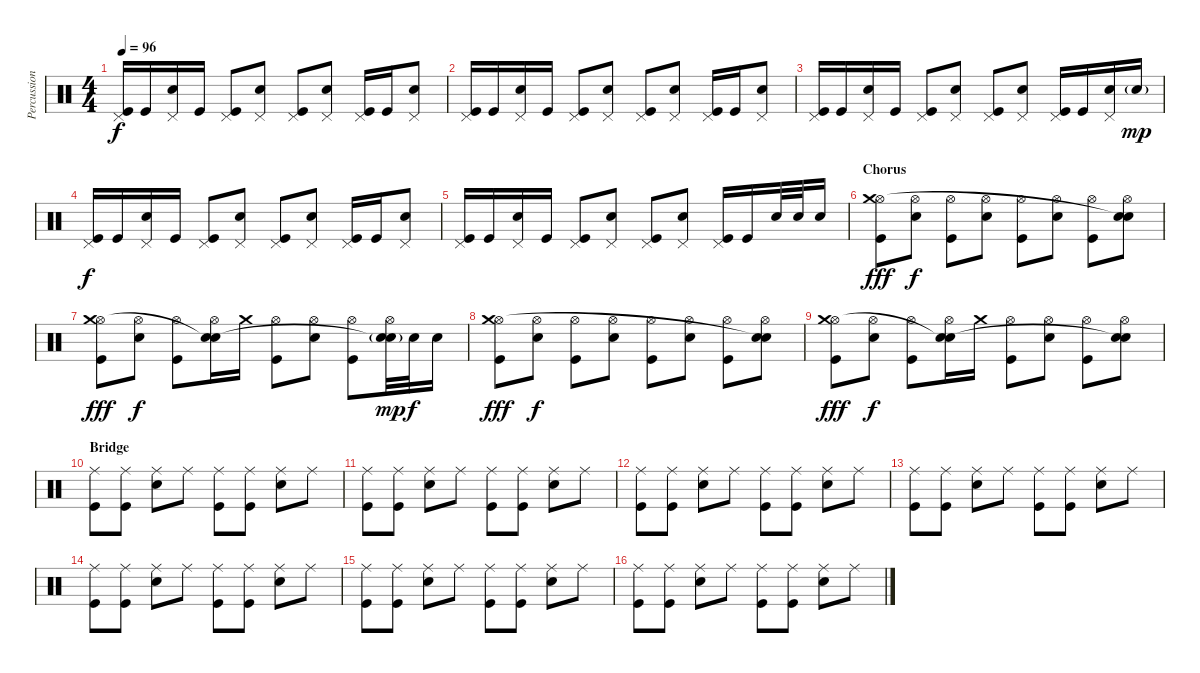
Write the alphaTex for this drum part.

\track ("Percussion" "Percussion") {instrument percussion}
\staff {score}
\articulation defaults
\ts (4 4)
\tempo 96
\clef neutral
\ks c
("Kick (hit)" "Pedal Hi-Hat (hit)").16{dy f} "Kick (hit)".16 ("Electric Snare (hit)" "Pedal Hi-Hat (hit)").16 "Kick (hit)".16 ("Kick (hit)" "Pedal Hi-Hat (hit)").8 ("Electric Snare (hit)" "Pedal Hi-Hat (hit)").8 ("Kick (hit)" "Pedal Hi-Hat (hit)").8 ("Electric Snare (hit)" "Pedal Hi-Hat (hit)").8 ("Kick (hit)" "Pedal Hi-Hat (hit)").16 "Kick (hit)".16 ("Electric Snare (hit)" "Pedal Hi-Hat (hit)").8 |
("Kick (hit)" "Pedal Hi-Hat (hit)").16 "Kick (hit)".16 ("Electric Snare (hit)" "Pedal Hi-Hat (hit)").16 "Kick (hit)".16 ("Kick (hit)" "Pedal Hi-Hat (hit)").8 ("Electric Snare (hit)" "Pedal Hi-Hat (hit)").8 ("Kick (hit)" "Pedal Hi-Hat (hit)").8 ("Electric Snare (hit)" "Pedal Hi-Hat (hit)").8 ("Kick (hit)" "Pedal Hi-Hat (hit)").16 "Kick (hit)".16 ("Electric Snare (hit)" "Pedal Hi-Hat (hit)").8 |
("Kick (hit)" "Pedal Hi-Hat (hit)").16 "Kick (hit)".16 ("Electric Snare (hit)" "Pedal Hi-Hat (hit)").16 "Kick (hit)".16 ("Kick (hit)" "Pedal Hi-Hat (hit)").8 ("Electric Snare (hit)" "Pedal Hi-Hat (hit)").8 ("Kick (hit)" "Pedal Hi-Hat (hit)").8 ("Electric Snare (hit)" "Pedal Hi-Hat (hit)").8 ("Kick (hit)" "Pedal Hi-Hat (hit)").16 "Kick (hit)".16 ("Electric Snare (hit)" "Pedal Hi-Hat (hit)").16 "Electric Snare (hit)"{g}.16{dy mp} |
("Kick (hit)" "Pedal Hi-Hat (hit)").16{dy f} "Kick (hit)".16 ("Electric Snare (hit)" "Pedal Hi-Hat (hit)").16 "Kick (hit)".16 ("Kick (hit)" "Pedal Hi-Hat (hit)").8 ("Electric Snare (hit)" "Pedal Hi-Hat (hit)").8 ("Kick (hit)" "Pedal Hi-Hat (hit)").8 ("Electric Snare (hit)" "Pedal Hi-Hat (hit)").8 ("Kick (hit)" "Pedal Hi-Hat (hit)").16 "Kick (hit)".16 ("Electric Snare (hit)" "Pedal Hi-Hat (hit)").8 |
("Kick (hit)" "Pedal Hi-Hat (hit)").16 "Kick (hit)".16 ("Electric Snare (hit)" "Pedal Hi-Hat (hit)").16 "Kick (hit)".16 ("Kick (hit)" "Pedal Hi-Hat (hit)").8 ("Electric Snare (hit)" "Pedal Hi-Hat (hit)").8 ("Kick (hit)" "Pedal Hi-Hat (hit)").8 ("Electric Snare (hit)" "Pedal Hi-Hat (hit)").8 ("Kick (hit)" "Pedal Hi-Hat (hit)").16 "Kick (hit)".16 "Electric Snare (hit)".32 "Electric Snare (hit)".32 "Electric Snare (hit)".16 |
\section ("" "Chorus")
("Hi-Hat (open)" "Kick (hit)" "Crash medium (hit)").8{dy fff} ("Hi-Hat (open)" "Electric Snare (hit)").8{dy f} ("Hi-Hat (open)" "Kick (hit)").8 ("Hi-Hat (open)" "Electric Snare (hit)").8 ("Hi-Hat (open)" "Kick (hit)").8 ("Hi-Hat (open)" "Electric Snare (hit)").8 ("Hi-Hat (open)" "Kick (hit)").8 ("Hi-Hat (open)" "Electric Snare (hit)" "Snare (hit)"{t}).8 |
("Hi-Hat (open)" "Kick (hit)" "Crash medium (hit)").8{dy fff} ("Hi-Hat (open)" "Electric Snare (hit)").8{dy f} ("Hi-Hat (open)" "Kick (hit)").8 ("Hi-Hat (open)" "Electric Snare (hit)" "Snare (hit)"{t}).16 "Crash medium (hit)".16 ("Hi-Hat (open)" "Kick (hit)").8 ("Hi-Hat (open)" "Electric Snare (hit)").8 ("Hi-Hat (open)" "Kick (hit)").8 ("Hi-Hat (open)" "Electric Snare (hit)"{g} "Snare (hit)"{t}).32{dy mp} "Electric Snare (hit)".32{dy f} "Electric Snare (hit)".16 |
("Hi-Hat (open)" "Kick (hit)" "Crash medium (hit)").8{dy fff} ("Hi-Hat (open)" "Electric Snare (hit)").8{dy f} ("Hi-Hat (open)" "Kick (hit)").8 ("Hi-Hat (open)" "Electric Snare (hit)").8 ("Hi-Hat (open)" "Kick (hit)").8 ("Hi-Hat (open)" "Electric Snare (hit)").8 ("Hi-Hat (open)" "Kick (hit)").8 ("Hi-Hat (open)" "Electric Snare (hit)" "Snare (hit)"{t}).8 |
("Hi-Hat (open)" "Kick (hit)" "Crash medium (hit)").8{dy fff} ("Hi-Hat (open)" "Electric Snare (hit)").8{dy f} ("Hi-Hat (open)" "Kick (hit)").8 ("Hi-Hat (open)" "Electric Snare (hit)" "Snare (hit)"{t}).16 "Crash medium (hit)".16 ("Hi-Hat (open)" "Kick (hit)").8 ("Hi-Hat (open)" "Electric Snare (hit)").8 ("Hi-Hat (open)" "Kick (hit)").8 ("Hi-Hat (open)" "Electric Snare (hit)" "Snare (hit)"{t}).8 |
\section ("" "Bridge")
("Ride (middle)" "Kick (hit)").8 ("Ride (middle)" "Kick (hit)").8 ("Ride (middle)" "Electric Snare (hit)").8 "Ride (middle)".8 ("Ride (middle)" "Kick (hit)").8 ("Ride (middle)" "Kick (hit)").8 ("Ride (middle)" "Electric Snare (hit)").8 "Ride (middle)".8 |
("Ride (middle)" "Kick (hit)").8 ("Ride (middle)" "Kick (hit)").8 ("Ride (middle)" "Electric Snare (hit)").8 "Ride (middle)".8 ("Ride (middle)" "Kick (hit)").8 ("Ride (middle)" "Kick (hit)").8 ("Ride (middle)" "Electric Snare (hit)").8 "Ride (middle)".8 |
("Ride (middle)" "Kick (hit)").8 ("Ride (middle)" "Kick (hit)").8 ("Ride (middle)" "Electric Snare (hit)").8 "Ride (middle)".8 ("Ride (middle)" "Kick (hit)").8 ("Ride (middle)" "Kick (hit)").8 ("Ride (middle)" "Electric Snare (hit)").8 "Ride (middle)".8 |
("Ride (middle)" "Kick (hit)").8 ("Ride (middle)" "Kick (hit)").8 ("Ride (middle)" "Electric Snare (hit)").8 "Ride (middle)".8 ("Ride (middle)" "Kick (hit)").8 ("Ride (middle)" "Kick (hit)").8 ("Ride (middle)" "Electric Snare (hit)").8 "Ride (middle)".8 |
("Ride (middle)" "Kick (hit)").8 ("Ride (middle)" "Kick (hit)").8 ("Ride (middle)" "Electric Snare (hit)").8 "Ride (middle)".8 ("Ride (middle)" "Kick (hit)").8 ("Ride (middle)" "Kick (hit)").8 ("Ride (middle)" "Electric Snare (hit)").8 "Ride (middle)".8 |
("Ride (middle)" "Kick (hit)").8 ("Ride (middle)" "Kick (hit)").8 ("Ride (middle)" "Electric Snare (hit)").8 "Ride (middle)".8 ("Ride (middle)" "Kick (hit)").8 ("Ride (middle)" "Kick (hit)").8 ("Ride (middle)" "Electric Snare (hit)").8 "Ride (middle)".8 |
("Ride (middle)" "Kick (hit)").8 ("Ride (middle)" "Kick (hit)").8 ("Ride (middle)" "Electric Snare (hit)").8 "Ride (middle)".8 ("Ride (middle)" "Kick (hit)").8 ("Ride (middle)" "Kick (hit)").8 ("Ride (middle)" "Electric Snare (hit)").8 "Ride (middle)".8
